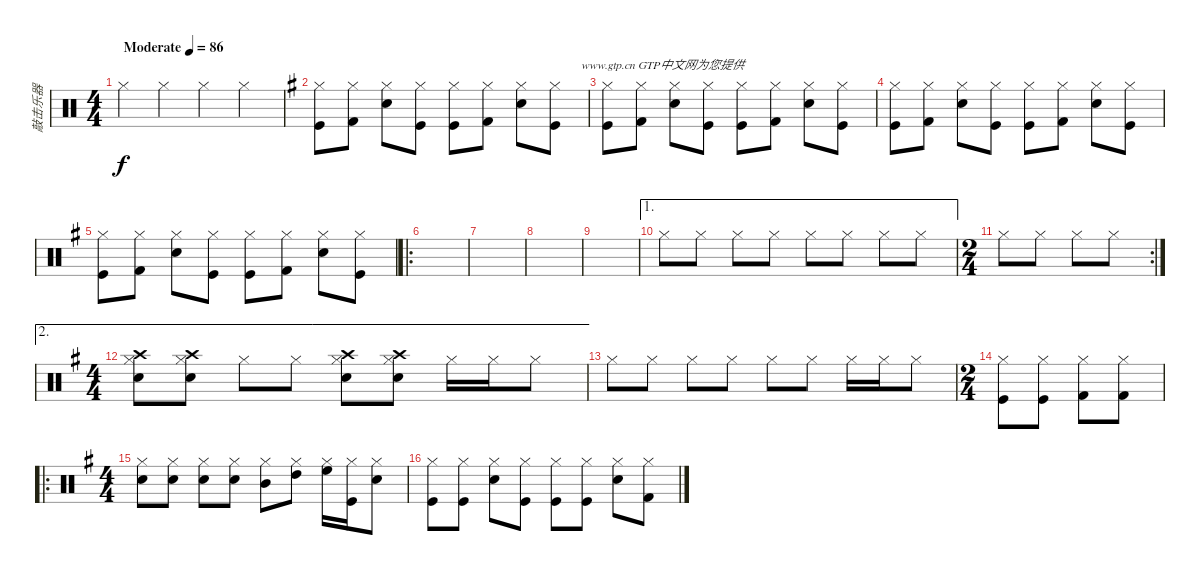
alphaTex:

\track ("敲击乐器" "敲击乐器") {instrument percussion}
\staff {score}
\articulation defaults
\ts (4 4)
\tempo (86 "Moderate")
\clef neutral
\ks c "Hi-Hat (closed)".4{dy f} "Hi-Hat (closed)".4 "Hi-Hat (closed)".4 "Hi-Hat (closed)".4
|
\ks g
("Hi-Hat (closed)" "Kick (hit)").8 ("Hi-Hat (closed)" "Kick (hit) 2").8 ("Hi-Hat (closed)" "Snare (hit) 2").8 ("Hi-Hat (closed)" "Kick (hit)").8 ("Hi-Hat (closed)" "Kick (hit)").8 ("Hi-Hat (closed)" "Kick (hit) 2").8 ("Hi-Hat (closed)" "Snare (hit) 2").8{txt "                    www.gtp.cn GTP中文网为您提供"} ("Hi-Hat (closed)" "Kick (hit)").8 |
("Hi-Hat (closed)" "Kick (hit)").8 ("Hi-Hat (closed)" "Kick (hit) 2").8 ("Hi-Hat (closed)" "Snare (hit) 2").8 ("Hi-Hat (closed)" "Kick (hit)").8 ("Hi-Hat (closed)" "Kick (hit)").8 ("Hi-Hat (closed)" "Kick (hit) 2").8 ("Hi-Hat (closed)" "Snare (hit) 2").8 ("Hi-Hat (closed)" "Kick (hit)").8 |
("Hi-Hat (closed)" "Kick (hit)").8 ("Hi-Hat (closed)" "Kick (hit) 2").8 ("Hi-Hat (closed)" "Snare (hit) 2").8 ("Hi-Hat (closed)" "Kick (hit)").8 ("Hi-Hat (closed)" "Kick (hit)").8 ("Hi-Hat (closed)" "Kick (hit) 2").8 ("Hi-Hat (closed)" "Snare (hit) 2").8 ("Hi-Hat (closed)" "Kick (hit)").8 |
("Hi-Hat (closed)" "Kick (hit)").8 ("Hi-Hat (closed)" "Kick (hit) 2").8 ("Hi-Hat (closed)" "Snare (hit) 2").8 ("Hi-Hat (closed)" "Kick (hit)").8 ("Hi-Hat (closed)" "Kick (hit)").8 ("Hi-Hat (closed)" "Kick (hit) 2").8 ("Hi-Hat (closed)" "Snare (hit) 2").8 ("Hi-Hat (closed)" "Kick (hit)").8 |
\ro
|
|
|
|
\ae 1 "Hi-Hat (closed)".8 "Hi-Hat (closed)".8 "Hi-Hat (closed)".8 "Hi-Hat (closed)".8 "Hi-Hat (closed)".8 "Hi-Hat (closed)".8 "Hi-Hat (closed)".8 "Hi-Hat (closed)".8
|
\rc 2
\ts (2 4)
"Hi-Hat (closed)".8 "Hi-Hat (closed)".8 "Hi-Hat (closed)".8 "Hi-Hat (closed)".8 |
\ae 2
\ts (4 4)
("Hi-Hat (closed)" "Snare (hit) 2" "Crash high (hit)").8 ("Hi-Hat (closed)" "Snare (hit) 2" "Crash high (hit)").8 "Hi-Hat (closed)".8 "Hi-Hat (closed)".8 ("Hi-Hat (closed)" "Snare (hit) 2" "Crash high (hit)").8 ("Hi-Hat (closed)" "Snare (hit) 2" "Crash high (hit)").8 "Hi-Hat (closed)".16 "Hi-Hat (closed)".16 "Hi-Hat (closed)".8 |
"Hi-Hat (closed)".8 "Hi-Hat (closed)".8 "Hi-Hat (closed)".8 "Hi-Hat (closed)".8 "Hi-Hat (closed)".8 "Hi-Hat (closed)".8 "Hi-Hat (closed)".16 "Hi-Hat (closed)".16 "Hi-Hat (closed)".8 |
\ts (2 4)
("Hi-Hat (closed)" "Kick (hit)").8 ("Hi-Hat (closed)" "Kick (hit)").8 ("Hi-Hat (closed)" "Kick (hit) 2").8 ("Hi-Hat (closed)" "Kick (hit) 2").8 |
\ro
\ts (4 4)
("Hi-Hat (closed)" "Snare (hit) 2").8 ("Hi-Hat (closed)" "Snare (hit) 2").8 ("Hi-Hat (closed)" "Snare (hit) 2").8 ("Hi-Hat (closed)" "Snare (hit) 2").8 ("Hi-Hat (closed)" "Mid Tom (hit)").8 ("Hi-Hat (closed)" "High Tom (hit)").8 ("Hi-Hat (closed)" "High Floor Tom (hit)").16 ("Hi-Hat (closed)" "Kick (hit)").16 ("Hi-Hat (closed)" "Snare (hit) 2").8 |
("Hi-Hat (closed)" "Kick (hit)").8 ("Hi-Hat (closed)" "Kick (hit)").8 ("Hi-Hat (closed)" "Snare (hit) 2").8 ("Hi-Hat (closed)" "Kick (hit)").8 ("Hi-Hat (closed)" "Kick (hit)").8 ("Hi-Hat (closed)" "Kick (hit)").8 ("Hi-Hat (closed)" "Snare (hit) 2").8 ("Hi-Hat (closed)" "Kick (hit) 2").8
